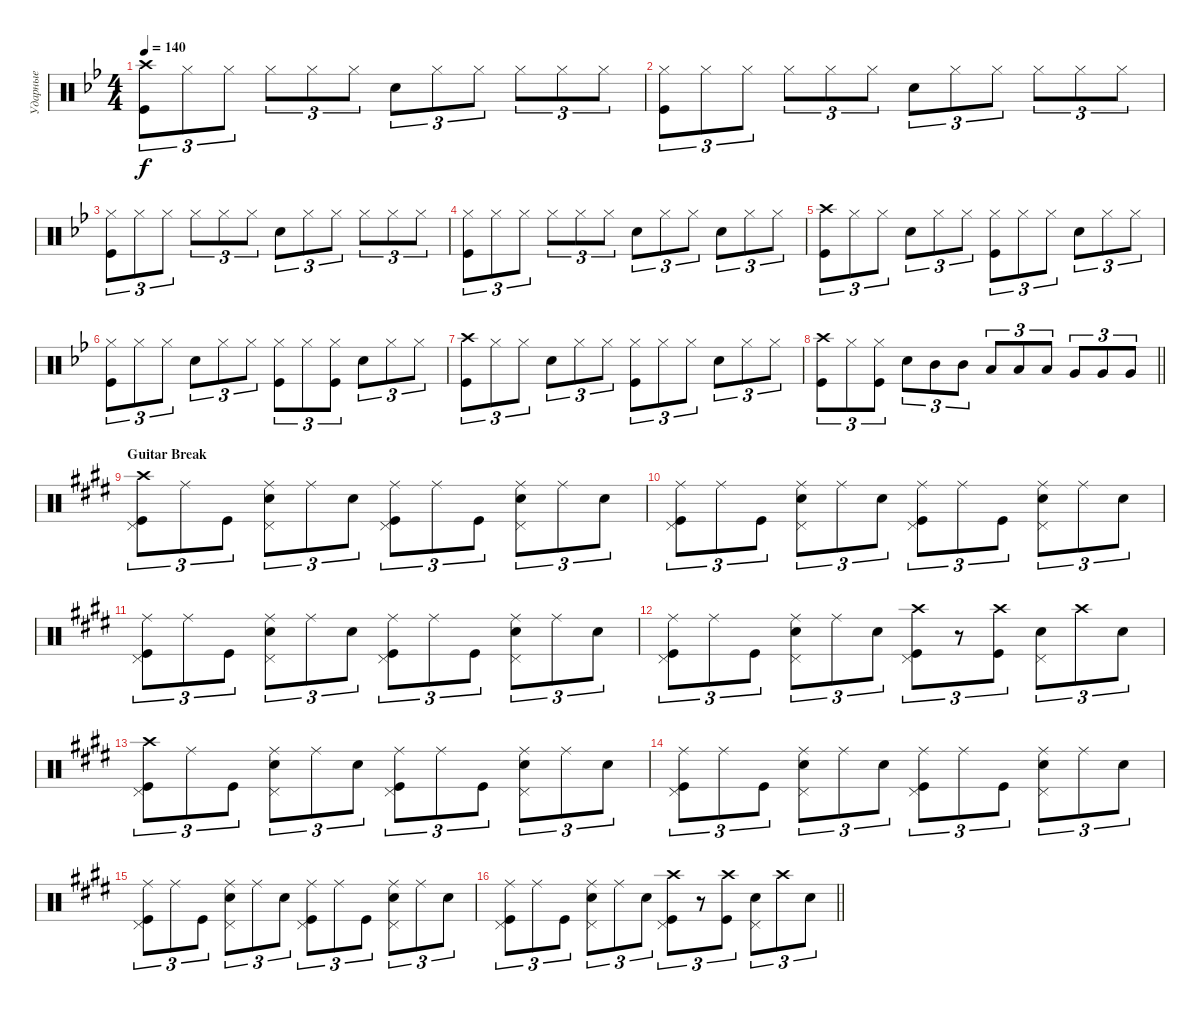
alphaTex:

\track ("Ударные" "Ударные") {instrument percussion}
\staff {score}
\articulation defaults
\ts (4 4)
\tempo 140
\clef neutral
\ks gminor
("Crash high (hit)" "Kick (hit)").8{tu (3 2) dy f} "Hi-Hat (closed)".8{tu (3 2)} "Hi-Hat (closed)".8{tu (3 2)} "Hi-Hat (closed)".8{tu (3 2)} "Hi-Hat (closed)".8{tu (3 2)} "Hi-Hat (closed)".8{tu (3 2)} "Snare (hit) 2".8{tu (3 2)} "Hi-Hat (closed)".8{tu (3 2)} "Hi-Hat (closed)".8{tu (3 2)} "Hi-Hat (closed)".8{tu (3 2)} "Hi-Hat (closed)".8{tu (3 2)} "Hi-Hat (closed)".8{tu (3 2)} |
("Hi-Hat (closed)" "Kick (hit)").8{tu (3 2)} "Hi-Hat (closed)".8{tu (3 2)} "Hi-Hat (closed)".8{tu (3 2)} "Hi-Hat (closed)".8{tu (3 2)} "Hi-Hat (closed)".8{tu (3 2)} "Hi-Hat (closed)".8{tu (3 2)} "Snare (hit) 2".8{tu (3 2)} "Hi-Hat (closed)".8{tu (3 2)} "Hi-Hat (closed)".8{tu (3 2)} "Hi-Hat (closed)".8{tu (3 2)} "Hi-Hat (closed)".8{tu (3 2)} "Hi-Hat (closed)".8{tu (3 2)} |
("Hi-Hat (closed)" "Kick (hit)").8{tu (3 2)} "Hi-Hat (closed)".8{tu (3 2)} "Hi-Hat (closed)".8{tu (3 2)} "Hi-Hat (closed)".8{tu (3 2)} "Hi-Hat (closed)".8{tu (3 2)} "Hi-Hat (closed)".8{tu (3 2)} "Snare (hit) 2".8{tu (3 2)} "Hi-Hat (closed)".8{tu (3 2)} "Hi-Hat (closed)".8{tu (3 2)} "Hi-Hat (closed)".8{tu (3 2)} "Hi-Hat (closed)".8{tu (3 2)} "Hi-Hat (closed)".8{tu (3 2)} |
("Hi-Hat (closed)" "Kick (hit)").8{tu (3 2)} "Hi-Hat (closed)".8{tu (3 2)} "Hi-Hat (closed)".8{tu (3 2)} "Hi-Hat (closed)".8{tu (3 2)} "Hi-Hat (closed)".8{tu (3 2)} "Hi-Hat (closed)".8{tu (3 2)} "Snare (hit) 2".8{tu (3 2)} "Hi-Hat (closed)".8{tu (3 2)} "Hi-Hat (closed)".8{tu (3 2)} "Snare (hit) 2".8{tu (3 2)} "Hi-Hat (closed)".8{tu (3 2)} "Hi-Hat (closed)".8{tu (3 2)} |
("Crash high (hit)" "Kick (hit)").8{tu (3 2)} "Hi-Hat (closed)".8{tu (3 2)} "Hi-Hat (closed)".8{tu (3 2)} "Snare (hit) 2".8{tu (3 2)} "Hi-Hat (closed)".8{tu (3 2)} "Hi-Hat (closed)".8{tu (3 2)} ("Kick (hit)" "Hi-Hat (closed)").8{tu (3 2)} "Hi-Hat (closed)".8{tu (3 2)} "Hi-Hat (closed)".8{tu (3 2)} "Snare (hit) 2".8{tu (3 2)} "Hi-Hat (closed)".8{tu (3 2)} "Hi-Hat (closed)".8{tu (3 2)} |
("Hi-Hat (closed)" "Kick (hit)").8{tu (3 2)} "Hi-Hat (closed)".8{tu (3 2)} "Hi-Hat (closed)".8{tu (3 2)} "Snare (hit) 2".8{tu (3 2)} "Hi-Hat (closed)".8{tu (3 2)} "Hi-Hat (closed)".8{tu (3 2)} ("Hi-Hat (closed)" "Kick (hit)").8{tu (3 2)} "Hi-Hat (closed)".8{tu (3 2)} ("Hi-Hat (closed)" "Kick (hit)").8{tu (3 2)} "Snare (hit) 2".8{tu (3 2)} "Hi-Hat (closed)".8{tu (3 2)} "Hi-Hat (closed)".8{tu (3 2)} |
("Crash high (hit)" "Kick (hit)").8{tu (3 2)} "Hi-Hat (closed)".8{tu (3 2)} "Hi-Hat (closed)".8{tu (3 2)} "Snare (hit) 2".8{tu (3 2)} "Hi-Hat (closed)".8{tu (3 2)} "Hi-Hat (closed)".8{tu (3 2)} ("Hi-Hat (closed)" "Kick (hit)").8{tu (3 2)} "Hi-Hat (closed)".8{tu (3 2)} "Hi-Hat (closed)".8{tu (3 2)} "Snare (hit) 2".8{tu (3 2)} "Hi-Hat (closed)".8{tu (3 2)} "Hi-Hat (closed)".8{tu (3 2)} |
\barLineRight lightlight
("Crash high (hit)" "Kick (hit)").8{tu (3 2)} "Hi-Hat (closed)".8{tu (3 2)} ("Hi-Hat (closed)" "Kick (hit)").8{tu (3 2)} "Snare (hit) 2".8{tu (3 2)} "Mid Tom (hit)".8{tu (3 2)} "Mid Tom (hit)".8{tu (3 2)} "Low Tom (hit)".8{tu (3 2)} "Low Tom (hit)".8{tu (3 2)} "Low Tom (hit)".8{tu (3 2)} "Very Low Tom (hit)".8{tu (3 2)} "Very Low Tom (hit)".8{tu (3 2)} "Very Low Tom (hit)".8{tu (3 2)} |
\section ("" "Guitar Break")
\ks c#minor
("Kick (hit)" "Crash high (hit)" "Pedal Hi-Hat (hit)").8{tu (3 2)} "Ride (middle)".8{tu (3 2)} "Kick (hit)".8{tu (3 2)} ("Snare (hit) 2" "Ride (middle)" "Pedal Hi-Hat (hit)").8{tu (3 2)} "Ride (middle)".8{tu (3 2)} "Snare (hit) 2".8{tu (3 2)} ("Kick (hit)" "Ride (middle)" "Pedal Hi-Hat (hit)").8{tu (3 2)} "Ride (middle)".8{tu (3 2)} "Kick (hit)".8{tu (3 2)} ("Snare (hit) 2" "Ride (middle)" "Pedal Hi-Hat (hit)").8{tu (3 2)} "Ride (middle)".8{tu (3 2)} "Snare (hit) 2".8{tu (3 2)} |
("Kick (hit)" "Ride (middle)" "Pedal Hi-Hat (hit)").8{tu (3 2)} "Ride (middle)".8{tu (3 2)} "Kick (hit)".8{tu (3 2)} ("Snare (hit) 2" "Ride (middle)" "Pedal Hi-Hat (hit)").8{tu (3 2)} "Ride (middle)".8{tu (3 2)} "Snare (hit) 2".8{tu (3 2)} ("Kick (hit)" "Ride (middle)" "Pedal Hi-Hat (hit)").8{tu (3 2)} "Ride (middle)".8{tu (3 2)} "Kick (hit)".8{tu (3 2)} ("Snare (hit) 2" "Ride (middle)" "Pedal Hi-Hat (hit)").8{tu (3 2)} "Ride (middle)".8{tu (3 2)} "Snare (hit) 2".8{tu (3 2)} |
("Kick (hit)" "Ride (middle)" "Pedal Hi-Hat (hit)").8{tu (3 2)} "Ride (middle)".8{tu (3 2)} "Kick (hit)".8{tu (3 2)} ("Snare (hit) 2" "Ride (middle)" "Pedal Hi-Hat (hit)").8{tu (3 2)} "Ride (middle)".8{tu (3 2)} "Snare (hit) 2".8{tu (3 2)} ("Kick (hit)" "Ride (middle)" "Pedal Hi-Hat (hit)").8{tu (3 2)} "Ride (middle)".8{tu (3 2)} "Kick (hit)".8{tu (3 2)} ("Snare (hit) 2" "Ride (middle)" "Pedal Hi-Hat (hit)").8{tu (3 2)} "Ride (middle)".8{tu (3 2)} "Snare (hit) 2".8{tu (3 2)} |
("Kick (hit)" "Ride (middle)" "Pedal Hi-Hat (hit)").8{tu (3 2)} "Ride (middle)".8{tu (3 2)} "Kick (hit)".8{tu (3 2)} ("Snare (hit) 2" "Ride (middle)" "Pedal Hi-Hat (hit)").8{tu (3 2)} "Ride (middle)".8{tu (3 2)} "Snare (hit) 2".8{tu (3 2)} ("Kick (hit)" "Crash high (hit)" "Pedal Hi-Hat (hit)").8{tu (3 2)} r.8{tu (3 2)} ("Kick (hit)" "Crash high (hit)").8{tu (3 2)} ("Snare (hit) 2" "Pedal Hi-Hat (hit)").8{tu (3 2)} "Crash high (hit)".8{tu (3 2)} "Snare (hit) 2".8{tu (3 2)} |
("Kick (hit)" "Crash high (hit)" "Pedal Hi-Hat (hit)").8{tu (3 2)} "Ride (middle)".8{tu (3 2)} "Kick (hit)".8{tu (3 2)} ("Snare (hit) 2" "Ride (middle)" "Pedal Hi-Hat (hit)").8{tu (3 2)} "Ride (middle)".8{tu (3 2)} "Snare (hit) 2".8{tu (3 2)} ("Kick (hit)" "Ride (middle)" "Pedal Hi-Hat (hit)").8{tu (3 2)} "Ride (middle)".8{tu (3 2)} "Kick (hit)".8{tu (3 2)} ("Snare (hit) 2" "Ride (middle)" "Pedal Hi-Hat (hit)").8{tu (3 2)} "Ride (middle)".8{tu (3 2)} "Snare (hit) 2".8{tu (3 2)} |
("Kick (hit)" "Ride (middle)" "Pedal Hi-Hat (hit)").8{tu (3 2)} "Ride (middle)".8{tu (3 2)} "Kick (hit)".8{tu (3 2)} ("Snare (hit) 2" "Ride (middle)" "Pedal Hi-Hat (hit)").8{tu (3 2)} "Ride (middle)".8{tu (3 2)} "Snare (hit) 2".8{tu (3 2)} ("Kick (hit)" "Ride (middle)" "Pedal Hi-Hat (hit)").8{tu (3 2)} "Ride (middle)".8{tu (3 2)} "Kick (hit)".8{tu (3 2)} ("Snare (hit) 2" "Ride (middle)" "Pedal Hi-Hat (hit)").8{tu (3 2)} "Ride (middle)".8{tu (3 2)} "Snare (hit) 2".8{tu (3 2)} |
("Kick (hit)" "Ride (middle)" "Pedal Hi-Hat (hit)").8{tu (3 2)} "Ride (middle)".8{tu (3 2)} "Kick (hit)".8{tu (3 2)} ("Snare (hit) 2" "Ride (middle)" "Pedal Hi-Hat (hit)").8{tu (3 2)} "Ride (middle)".8{tu (3 2)} "Snare (hit) 2".8{tu (3 2)} ("Kick (hit)" "Ride (middle)" "Pedal Hi-Hat (hit)").8{tu (3 2)} "Ride (middle)".8{tu (3 2)} "Kick (hit)".8{tu (3 2)} ("Snare (hit) 2" "Ride (middle)" "Pedal Hi-Hat (hit)").8{tu (3 2)} "Ride (middle)".8{tu (3 2)} "Snare (hit) 2".8{tu (3 2)} |
\barLineRight lightlight
("Kick (hit)" "Ride (middle)" "Pedal Hi-Hat (hit)").8{tu (3 2)} "Ride (middle)".8{tu (3 2)} "Kick (hit)".8{tu (3 2)} ("Snare (hit) 2" "Ride (middle)" "Pedal Hi-Hat (hit)").8{tu (3 2)} "Ride (middle)".8{tu (3 2)} "Snare (hit) 2".8{tu (3 2)} ("Kick (hit)" "Crash high (hit)" "Pedal Hi-Hat (hit)").8{tu (3 2)} r.8{tu (3 2)} ("Kick (hit)" "Crash high (hit)").8{tu (3 2)} ("Snare (hit) 2" "Pedal Hi-Hat (hit)").8{tu (3 2)} "Crash high (hit)".8{tu (3 2)} "Snare (hit) 2".8{tu (3 2)}
